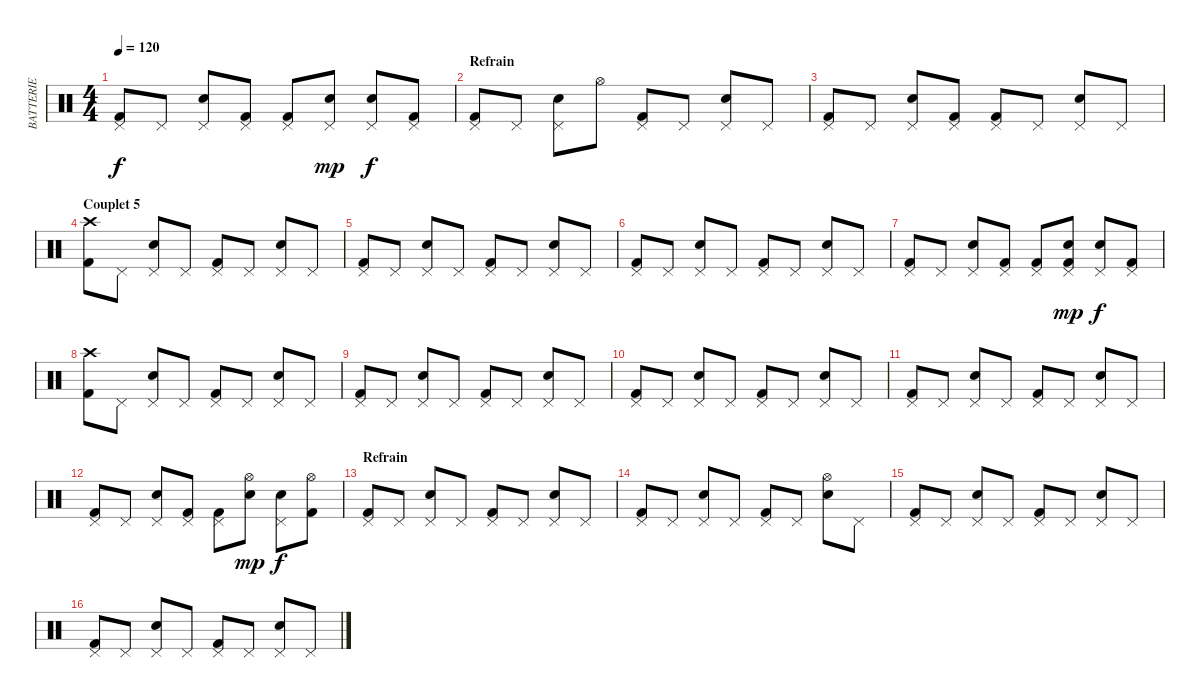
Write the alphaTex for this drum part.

\track ("BATTERIE" "BATTERIE") {instrument percussion}
\staff {score}
\articulation defaults
\ts (4 4)
\tempo 120
\clef neutral
\ks c
("Pedal Hi-Hat (hit)" "Kick (hit) 2").8{dy f} "Pedal Hi-Hat (hit)".8 ("Pedal Hi-Hat (hit)" "Snare (hit) 2").8 ("Pedal Hi-Hat (hit)" "Kick (hit) 2").8 ("Pedal Hi-Hat (hit)" "Kick (hit) 2").8 ("Pedal Hi-Hat (hit)" "Snare (hit) 2").8{dy mp} ("Pedal Hi-Hat (hit)" "Snare (hit) 2").8{dy f} ("Pedal Hi-Hat (hit)" "Kick (hit) 2").8 |
\section ("" "Refrain")
("Pedal Hi-Hat (hit)" "Kick (hit) 2").8 "Pedal Hi-Hat (hit)".8 ("Pedal Hi-Hat (hit)" "Snare (hit) 2").8 "Hi-Hat (open)".8 ("Pedal Hi-Hat (hit)" "Kick (hit) 2").8 "Pedal Hi-Hat (hit)".8 ("Pedal Hi-Hat (hit)" "Snare (hit) 2").8 "Pedal Hi-Hat (hit)".8 |
("Pedal Hi-Hat (hit)" "Kick (hit) 2").8 "Pedal Hi-Hat (hit)".8 ("Pedal Hi-Hat (hit)" "Snare (hit) 2").8 ("Pedal Hi-Hat (hit)" "Kick (hit) 2").8 ("Pedal Hi-Hat (hit)" "Kick (hit) 2").8 "Pedal Hi-Hat (hit)".8 ("Pedal Hi-Hat (hit)" "Snare (hit) 2").8 "Pedal Hi-Hat (hit)".8 |
\section ("" "Couplet 5")
("Crash high (hit)" "Kick (hit) 2").8 "Pedal Hi-Hat (hit)".8 ("Pedal Hi-Hat (hit)" "Snare (hit) 2").8 "Pedal Hi-Hat (hit)".8 ("Pedal Hi-Hat (hit)" "Kick (hit) 2").8 "Pedal Hi-Hat (hit)".8 ("Pedal Hi-Hat (hit)" "Snare (hit) 2").8 "Pedal Hi-Hat (hit)".8 |
("Pedal Hi-Hat (hit)" "Kick (hit) 2").8 "Pedal Hi-Hat (hit)".8 ("Pedal Hi-Hat (hit)" "Snare (hit) 2").8 "Pedal Hi-Hat (hit)".8 ("Pedal Hi-Hat (hit)" "Kick (hit) 2").8 "Pedal Hi-Hat (hit)".8 ("Pedal Hi-Hat (hit)" "Snare (hit) 2").8 "Pedal Hi-Hat (hit)".8 |
("Pedal Hi-Hat (hit)" "Kick (hit) 2").8 "Pedal Hi-Hat (hit)".8 ("Pedal Hi-Hat (hit)" "Snare (hit) 2").8 "Pedal Hi-Hat (hit)".8 ("Pedal Hi-Hat (hit)" "Kick (hit) 2").8 "Pedal Hi-Hat (hit)".8 ("Pedal Hi-Hat (hit)" "Snare (hit) 2").8 "Pedal Hi-Hat (hit)".8 |
("Pedal Hi-Hat (hit)" "Kick (hit) 2").8 "Pedal Hi-Hat (hit)".8 ("Pedal Hi-Hat (hit)" "Snare (hit) 2").8 ("Pedal Hi-Hat (hit)" "Kick (hit) 2").8 ("Pedal Hi-Hat (hit)" "Kick (hit) 2").8 ("Pedal Hi-Hat (hit)" "Snare (hit) 2" "Kick (hit) 2").8{dy mp} ("Pedal Hi-Hat (hit)" "Snare (hit) 2").8{dy f} ("Pedal Hi-Hat (hit)" "Kick (hit) 2").8 |
("Crash high (hit)" "Kick (hit) 2").8 "Pedal Hi-Hat (hit)".8 ("Pedal Hi-Hat (hit)" "Snare (hit) 2").8 "Pedal Hi-Hat (hit)".8 ("Pedal Hi-Hat (hit)" "Kick (hit) 2").8 "Pedal Hi-Hat (hit)".8 ("Pedal Hi-Hat (hit)" "Snare (hit) 2").8 "Pedal Hi-Hat (hit)".8 |
("Pedal Hi-Hat (hit)" "Kick (hit) 2").8 "Pedal Hi-Hat (hit)".8 ("Pedal Hi-Hat (hit)" "Snare (hit) 2").8 "Pedal Hi-Hat (hit)".8 ("Pedal Hi-Hat (hit)" "Kick (hit) 2").8 "Pedal Hi-Hat (hit)".8 ("Pedal Hi-Hat (hit)" "Snare (hit) 2").8 "Pedal Hi-Hat (hit)".8 |
("Pedal Hi-Hat (hit)" "Kick (hit) 2").8 "Pedal Hi-Hat (hit)".8 ("Pedal Hi-Hat (hit)" "Snare (hit) 2").8 "Pedal Hi-Hat (hit)".8 ("Pedal Hi-Hat (hit)" "Kick (hit) 2").8 "Pedal Hi-Hat (hit)".8 ("Pedal Hi-Hat (hit)" "Snare (hit) 2").8 "Pedal Hi-Hat (hit)".8 |
("Pedal Hi-Hat (hit)" "Kick (hit) 2").8 "Pedal Hi-Hat (hit)".8 ("Pedal Hi-Hat (hit)" "Snare (hit) 2").8 "Pedal Hi-Hat (hit)".8 ("Pedal Hi-Hat (hit)" "Kick (hit) 2").8 "Pedal Hi-Hat (hit)".8 ("Pedal Hi-Hat (hit)" "Snare (hit) 2").8 "Pedal Hi-Hat (hit)".8 |
("Pedal Hi-Hat (hit)" "Kick (hit) 2").8 "Pedal Hi-Hat (hit)".8 ("Pedal Hi-Hat (hit)" "Snare (hit) 2").8 ("Pedal Hi-Hat (hit)" "Kick (hit) 2").8 ("Pedal Hi-Hat (hit)" "Kick (hit) 2").8 ("Hi-Hat (open)" "Snare (hit) 2").8{dy mp} ("Pedal Hi-Hat (hit)" "Snare (hit) 2").8{dy f} ("Hi-Hat (open)" "Kick (hit) 2").8 |
\section ("" "Refrain")
("Pedal Hi-Hat (hit)" "Kick (hit) 2").8 "Pedal Hi-Hat (hit)".8 ("Pedal Hi-Hat (hit)" "Snare (hit) 2").8 "Pedal Hi-Hat (hit)".8 ("Pedal Hi-Hat (hit)" "Kick (hit) 2").8 "Pedal Hi-Hat (hit)".8 ("Pedal Hi-Hat (hit)" "Snare (hit) 2").8 "Pedal Hi-Hat (hit)".8 |
("Pedal Hi-Hat (hit)" "Kick (hit) 2").8 "Pedal Hi-Hat (hit)".8 ("Pedal Hi-Hat (hit)" "Snare (hit) 2").8 "Pedal Hi-Hat (hit)".8 ("Pedal Hi-Hat (hit)" "Kick (hit) 2").8 "Pedal Hi-Hat (hit)".8 ("Hi-Hat (open)" "Snare (hit) 2").8 "Pedal Hi-Hat (hit)".8 |
("Pedal Hi-Hat (hit)" "Kick (hit) 2").8 "Pedal Hi-Hat (hit)".8 ("Pedal Hi-Hat (hit)" "Snare (hit) 2").8 "Pedal Hi-Hat (hit)".8 ("Pedal Hi-Hat (hit)" "Kick (hit) 2").8 "Pedal Hi-Hat (hit)".8 ("Pedal Hi-Hat (hit)" "Snare (hit) 2").8 "Pedal Hi-Hat (hit)".8 |
("Pedal Hi-Hat (hit)" "Kick (hit) 2").8 "Pedal Hi-Hat (hit)".8 ("Pedal Hi-Hat (hit)" "Snare (hit) 2").8 "Pedal Hi-Hat (hit)".8 ("Pedal Hi-Hat (hit)" "Kick (hit) 2").8 "Pedal Hi-Hat (hit)".8 ("Pedal Hi-Hat (hit)" "Snare (hit) 2").8 "Pedal Hi-Hat (hit)".8
